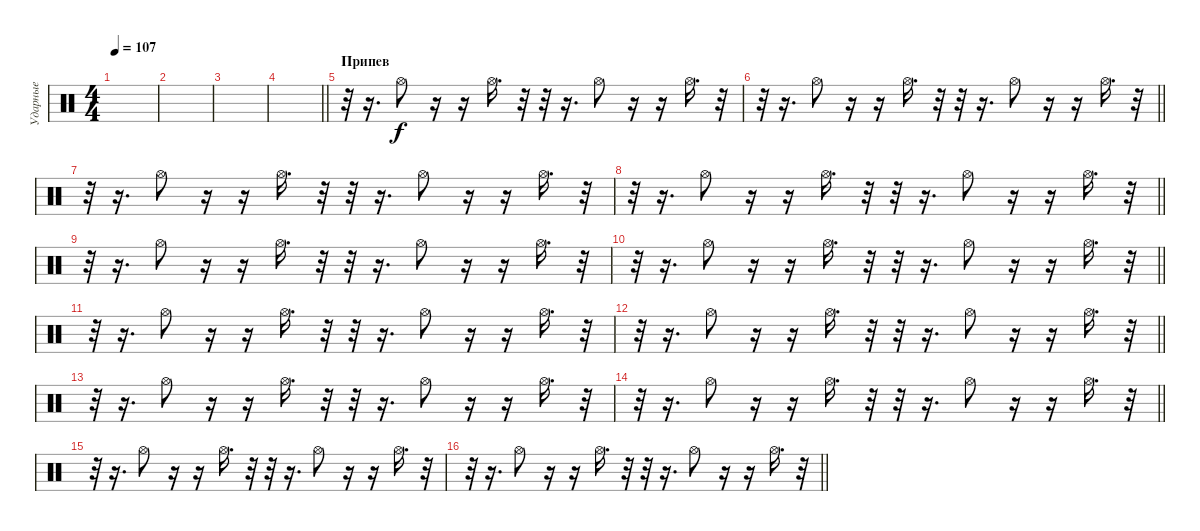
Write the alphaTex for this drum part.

\track ("Ударные" "Ударные") {solo instrument percussion}
\staff {score}
\articulation defaults
\ts (4 4)
\tempo 107
\clef neutral
\ks c
|
|
|
\barLineRight lightlight
|
\section ("" "Припев")
r.32 r.16{d} "Hi-Hat (open)".8 r.16 r.16 "Hi-Hat (open)".16{d} r.32 r.32 r.16{d} "Hi-Hat (open)".8 r.16 r.16 "Hi-Hat (open)".16{d} r.32 |
\barLineRight lightlight
r.32 r.16{d} "Hi-Hat (open)".8 r.16 r.16 "Hi-Hat (open)".16{d} r.32 r.32 r.16{d} "Hi-Hat (open)".8 r.16 r.16 "Hi-Hat (open)".16{d} r.32 |
r.32 r.16{d} "Hi-Hat (open)".8 r.16 r.16 "Hi-Hat (open)".16{d} r.32 r.32 r.16{d} "Hi-Hat (open)".8 r.16 r.16 "Hi-Hat (open)".16{d} r.32 |
\barLineRight lightlight
r.32 r.16{d} "Hi-Hat (open)".8 r.16 r.16 "Hi-Hat (open)".16{d} r.32 r.32 r.16{d} "Hi-Hat (open)".8 r.16 r.16 "Hi-Hat (open)".16{d} r.32 |
r.32 r.16{d} "Hi-Hat (open)".8 r.16 r.16 "Hi-Hat (open)".16{d} r.32 r.32 r.16{d} "Hi-Hat (open)".8 r.16 r.16 "Hi-Hat (open)".16{d} r.32 |
\barLineRight lightlight
r.32 r.16{d} "Hi-Hat (open)".8 r.16 r.16 "Hi-Hat (open)".16{d} r.32 r.32 r.16{d} "Hi-Hat (open)".8 r.16 r.16 "Hi-Hat (open)".16{d} r.32 |
r.32 r.16{d} "Hi-Hat (open)".8 r.16 r.16 "Hi-Hat (open)".16{d} r.32 r.32 r.16{d} "Hi-Hat (open)".8 r.16 r.16 "Hi-Hat (open)".16{d} r.32 |
\barLineRight lightlight
r.32 r.16{d} "Hi-Hat (open)".8 r.16 r.16 "Hi-Hat (open)".16{d} r.32 r.32 r.16{d} "Hi-Hat (open)".8 r.16 r.16 "Hi-Hat (open)".16{d} r.32 |
r.32 r.16{d} "Hi-Hat (open)".8 r.16 r.16 "Hi-Hat (open)".16{d} r.32 r.32 r.16{d} "Hi-Hat (open)".8 r.16 r.16 "Hi-Hat (open)".16{d} r.32 |
\barLineRight lightlight
r.32 r.16{d} "Hi-Hat (open)".8 r.16 r.16 "Hi-Hat (open)".16{d} r.32 r.32 r.16{d} "Hi-Hat (open)".8 r.16 r.16 "Hi-Hat (open)".16{d} r.32 |
r.32 r.16{d} "Hi-Hat (open)".8 r.16 r.16 "Hi-Hat (open)".16{d} r.32 r.32 r.16{d} "Hi-Hat (open)".8 r.16 r.16 "Hi-Hat (open)".16{d} r.32 |
\barLineRight lightlight
r.32 r.16{d} "Hi-Hat (open)".8 r.16 r.16 "Hi-Hat (open)".16{d} r.32 r.32 r.16{d} "Hi-Hat (open)".8 r.16 r.16 "Hi-Hat (open)".16{d} r.32
